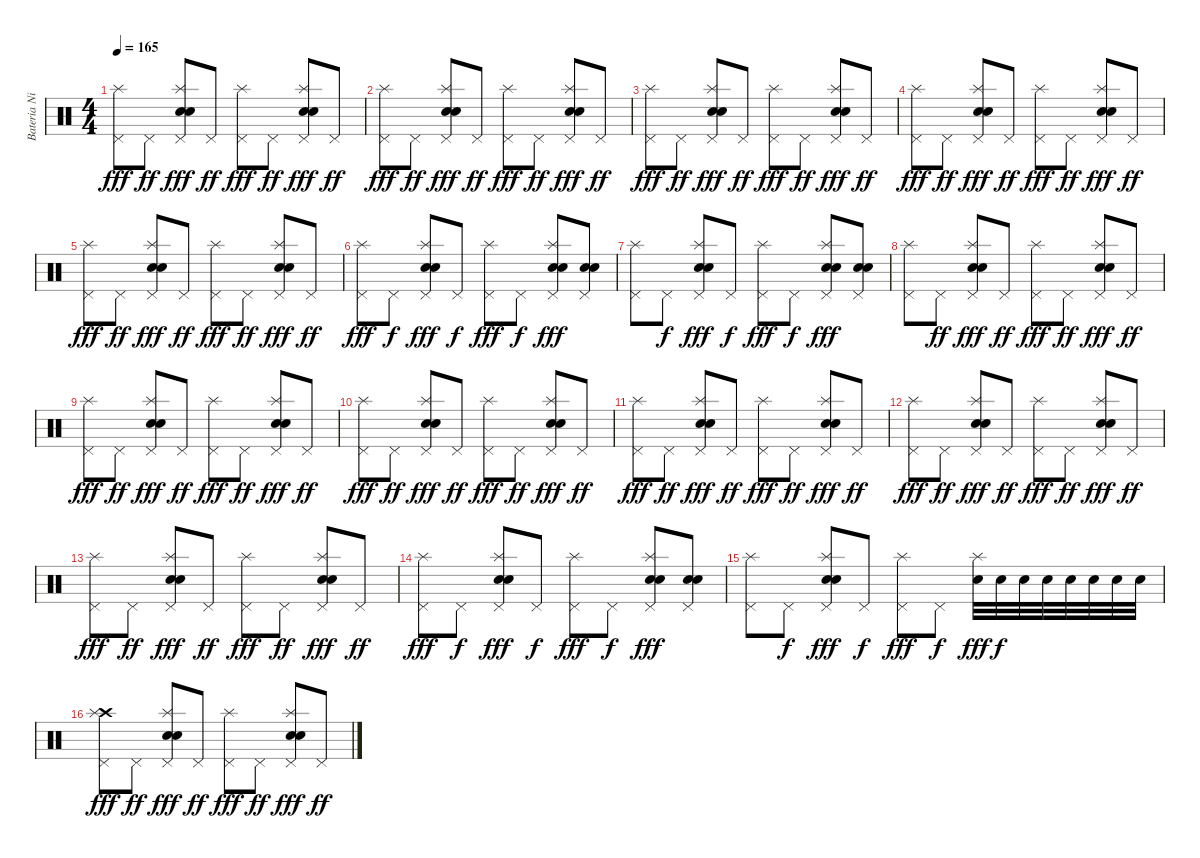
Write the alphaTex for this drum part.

\track ("Bateria Nicolas Cabrera" "Bateria Ni") {instrument percussion}
\staff {score}
\articulation defaults
\ts (4 4)
\tempo 165
\clef neutral
\ks c
("Pedal Hi-Hat (hit)" "Splash (hit)").8{dy fff} "Pedal Hi-Hat (hit)".8{dy ff} ("Electric Snare (hit)" "Electric Snare (hit)" "Pedal Hi-Hat (hit)" "Splash (hit)").8{dy fff} "Pedal Hi-Hat (hit)".8{dy ff} ("Pedal Hi-Hat (hit)" "Splash (hit)").8{dy fff} "Pedal Hi-Hat (hit)".8{dy ff} ("Electric Snare (hit)" "Electric Snare (hit)" "Pedal Hi-Hat (hit)" "Splash (hit)").8{dy fff} "Pedal Hi-Hat (hit)".8{dy ff} |
("Pedal Hi-Hat (hit)" "Splash (hit)").8{dy fff} "Pedal Hi-Hat (hit)".8{dy ff} ("Electric Snare (hit)" "Electric Snare (hit)" "Pedal Hi-Hat (hit)" "Splash (hit)").8{dy fff} "Pedal Hi-Hat (hit)".8{dy ff} ("Pedal Hi-Hat (hit)" "Splash (hit)").8{dy fff} "Pedal Hi-Hat (hit)".8{dy ff} ("Electric Snare (hit)" "Electric Snare (hit)" "Pedal Hi-Hat (hit)" "Splash (hit)").8{dy fff} "Pedal Hi-Hat (hit)".8{dy ff} |
("Pedal Hi-Hat (hit)" "Splash (hit)").8{dy fff} "Pedal Hi-Hat (hit)".8{dy ff} ("Electric Snare (hit)" "Electric Snare (hit)" "Pedal Hi-Hat (hit)" "Splash (hit)").8{dy fff} "Pedal Hi-Hat (hit)".8{dy ff} ("Pedal Hi-Hat (hit)" "Splash (hit)").8{dy fff} "Pedal Hi-Hat (hit)".8{dy ff} ("Electric Snare (hit)" "Electric Snare (hit)" "Pedal Hi-Hat (hit)" "Splash (hit)").8{dy fff} "Pedal Hi-Hat (hit)".8{dy ff} |
("Pedal Hi-Hat (hit)" "Splash (hit)").8{dy fff} "Pedal Hi-Hat (hit)".8{dy ff} ("Electric Snare (hit)" "Electric Snare (hit)" "Pedal Hi-Hat (hit)" "Splash (hit)").8{dy fff} "Pedal Hi-Hat (hit)".8{dy ff} ("Pedal Hi-Hat (hit)" "Splash (hit)").8{dy fff} "Pedal Hi-Hat (hit)".8{dy ff} ("Electric Snare (hit)" "Electric Snare (hit)" "Pedal Hi-Hat (hit)" "Splash (hit)").8{dy fff} "Pedal Hi-Hat (hit)".8{dy ff} |
("Pedal Hi-Hat (hit)" "Splash (hit)").8{dy fff} "Pedal Hi-Hat (hit)".8{dy ff} ("Electric Snare (hit)" "Electric Snare (hit)" "Pedal Hi-Hat (hit)" "Splash (hit)").8{dy fff} "Pedal Hi-Hat (hit)".8{dy ff} ("Pedal Hi-Hat (hit)" "Splash (hit)").8{dy fff} "Pedal Hi-Hat (hit)".8{dy ff} ("Electric Snare (hit)" "Electric Snare (hit)" "Pedal Hi-Hat (hit)" "Splash (hit)").8{dy fff} "Pedal Hi-Hat (hit)".8{dy ff} |
("Pedal Hi-Hat (hit)" "Splash (hit)").8{dy fff} "Pedal Hi-Hat (hit)".8{dy f} ("Electric Snare (hit)" "Electric Snare (hit)" "Pedal Hi-Hat (hit)" "Splash (hit)").8{dy fff} "Pedal Hi-Hat (hit)".8{dy f} ("Pedal Hi-Hat (hit)" "Splash (hit)").8{dy fff} "Pedal Hi-Hat (hit)".8{dy f} ("Electric Snare (hit)" "Electric Snare (hit)" "Pedal Hi-Hat (hit)" "Splash (hit)").8{dy fff} ("Electric Snare (hit)" "Electric Snare (hit)" "Pedal Hi-Hat (hit)").8 |
("Pedal Hi-Hat (hit)" "Splash (hit)").8 "Pedal Hi-Hat (hit)".8{dy f} ("Electric Snare (hit)" "Electric Snare (hit)" "Pedal Hi-Hat (hit)" "Splash (hit)").8{dy fff} "Pedal Hi-Hat (hit)".8{dy f} ("Pedal Hi-Hat (hit)" "Splash (hit)").8{dy fff} "Pedal Hi-Hat (hit)".8{dy f} ("Electric Snare (hit)" "Electric Snare (hit)" "Pedal Hi-Hat (hit)" "Splash (hit)").8{dy fff} ("Electric Snare (hit)" "Electric Snare (hit)" "Pedal Hi-Hat (hit)").8 |
("Pedal Hi-Hat (hit)" "Splash (hit)").8 "Pedal Hi-Hat (hit)".8{dy ff} ("Electric Snare (hit)" "Electric Snare (hit)" "Pedal Hi-Hat (hit)" "Splash (hit)").8{dy fff} "Pedal Hi-Hat (hit)".8{dy ff} ("Pedal Hi-Hat (hit)" "Splash (hit)").8{dy fff} "Pedal Hi-Hat (hit)".8{dy ff} ("Electric Snare (hit)" "Electric Snare (hit)" "Pedal Hi-Hat (hit)" "Splash (hit)").8{dy fff} "Pedal Hi-Hat (hit)".8{dy ff} |
("Pedal Hi-Hat (hit)" "Splash (hit)").8{dy fff} "Pedal Hi-Hat (hit)".8{dy ff} ("Electric Snare (hit)" "Electric Snare (hit)" "Pedal Hi-Hat (hit)" "Splash (hit)").8{dy fff} "Pedal Hi-Hat (hit)".8{dy ff} ("Pedal Hi-Hat (hit)" "Splash (hit)").8{dy fff} "Pedal Hi-Hat (hit)".8{dy ff} ("Electric Snare (hit)" "Electric Snare (hit)" "Pedal Hi-Hat (hit)" "Splash (hit)").8{dy fff} "Pedal Hi-Hat (hit)".8{dy ff} |
("Pedal Hi-Hat (hit)" "Splash (hit)").8{dy fff} "Pedal Hi-Hat (hit)".8{dy ff} ("Electric Snare (hit)" "Electric Snare (hit)" "Pedal Hi-Hat (hit)" "Splash (hit)").8{dy fff} "Pedal Hi-Hat (hit)".8{dy ff} ("Pedal Hi-Hat (hit)" "Splash (hit)").8{dy fff} "Pedal Hi-Hat (hit)".8{dy ff} ("Electric Snare (hit)" "Electric Snare (hit)" "Pedal Hi-Hat (hit)" "Splash (hit)").8{dy fff} "Pedal Hi-Hat (hit)".8{dy ff} |
("Pedal Hi-Hat (hit)" "Splash (hit)").8{dy fff} "Pedal Hi-Hat (hit)".8{dy ff} ("Electric Snare (hit)" "Electric Snare (hit)" "Pedal Hi-Hat (hit)" "Splash (hit)").8{dy fff} "Pedal Hi-Hat (hit)".8{dy ff} ("Pedal Hi-Hat (hit)" "Splash (hit)").8{dy fff} "Pedal Hi-Hat (hit)".8{dy ff} ("Electric Snare (hit)" "Electric Snare (hit)" "Pedal Hi-Hat (hit)" "Splash (hit)").8{dy fff} "Pedal Hi-Hat (hit)".8{dy ff} |
("Pedal Hi-Hat (hit)" "Splash (hit)").8{dy fff} "Pedal Hi-Hat (hit)".8{dy ff} ("Electric Snare (hit)" "Electric Snare (hit)" "Pedal Hi-Hat (hit)" "Splash (hit)").8{dy fff} "Pedal Hi-Hat (hit)".8{dy ff} ("Pedal Hi-Hat (hit)" "Splash (hit)").8{dy fff} "Pedal Hi-Hat (hit)".8{dy ff} ("Electric Snare (hit)" "Electric Snare (hit)" "Pedal Hi-Hat (hit)" "Splash (hit)").8{dy fff} "Pedal Hi-Hat (hit)".8{dy ff} |
("Pedal Hi-Hat (hit)" "Splash (hit)").8{dy fff} "Pedal Hi-Hat (hit)".8{dy ff} ("Electric Snare (hit)" "Electric Snare (hit)" "Pedal Hi-Hat (hit)" "Splash (hit)").8{dy fff} "Pedal Hi-Hat (hit)".8{dy ff} ("Pedal Hi-Hat (hit)" "Splash (hit)").8{dy fff} "Pedal Hi-Hat (hit)".8{dy ff} ("Electric Snare (hit)" "Electric Snare (hit)" "Pedal Hi-Hat (hit)" "Splash (hit)").8{dy fff} "Pedal Hi-Hat (hit)".8{dy ff} |
("Pedal Hi-Hat (hit)" "Splash (hit)").8{dy fff} "Pedal Hi-Hat (hit)".8{dy f} ("Electric Snare (hit)" "Electric Snare (hit)" "Pedal Hi-Hat (hit)" "Splash (hit)").8{dy fff} "Pedal Hi-Hat (hit)".8{dy f} ("Pedal Hi-Hat (hit)" "Splash (hit)").8{dy fff} "Pedal Hi-Hat (hit)".8{dy f} ("Electric Snare (hit)" "Electric Snare (hit)" "Pedal Hi-Hat (hit)" "Splash (hit)").8{dy fff} ("Electric Snare (hit)" "Electric Snare (hit)" "Pedal Hi-Hat (hit)").8 |
("Pedal Hi-Hat (hit)" "Splash (hit)").8 "Pedal Hi-Hat (hit)".8{dy f} ("Electric Snare (hit)" "Electric Snare (hit)" "Pedal Hi-Hat (hit)" "Splash (hit)").8{dy fff} "Pedal Hi-Hat (hit)".8{dy f} ("Pedal Hi-Hat (hit)" "Splash (hit)").8{dy fff} "Pedal Hi-Hat (hit)".8{dy f} ("Electric Snare (hit)" "Splash (hit)").32{dy fff} "Electric Snare (hit)".32{dy f} "Electric Snare (hit)".32 "Snare (hit) 2".32 "Electric Snare (hit)".32 "Electric Snare (hit)".32 "Electric Snare (hit)".32 "Electric Snare (hit)".32 |
("Crash high (hit)" "Pedal Hi-Hat (hit)" "Splash (hit)").8{dy fff} "Pedal Hi-Hat (hit)".8{dy ff} ("Electric Snare (hit)" "Electric Snare (hit)" "Pedal Hi-Hat (hit)" "Splash (hit)").8{dy fff} "Pedal Hi-Hat (hit)".8{dy ff} ("Pedal Hi-Hat (hit)" "Splash (hit)").8{dy fff} "Pedal Hi-Hat (hit)".8{dy ff} ("Electric Snare (hit)" "Electric Snare (hit)" "Pedal Hi-Hat (hit)" "Splash (hit)").8{dy fff} "Pedal Hi-Hat (hit)".8{dy ff}
